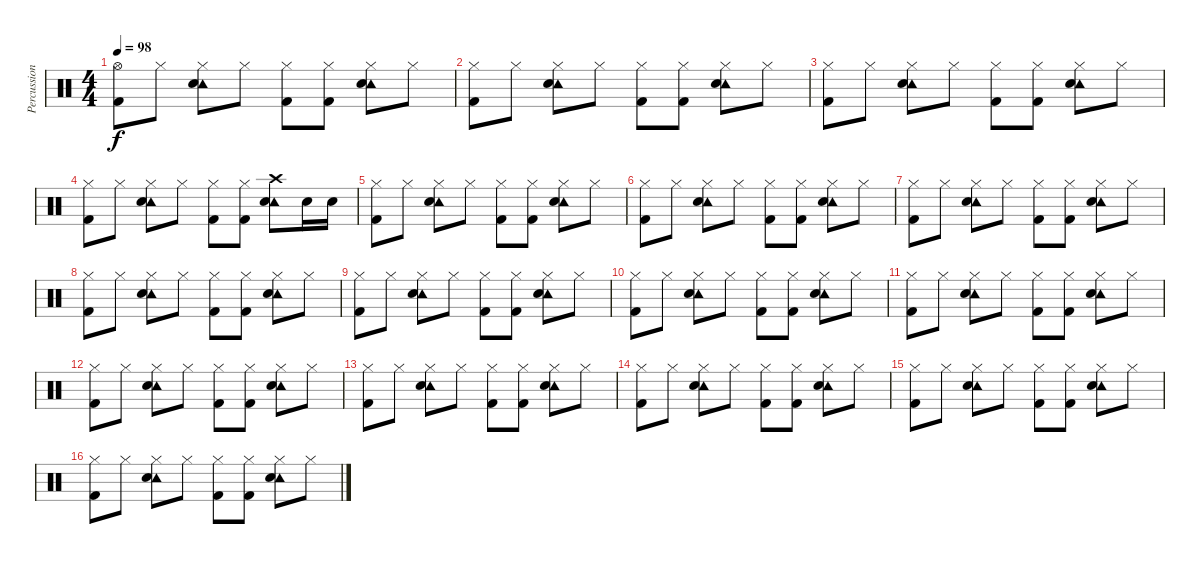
\track ("Percussion" "Percussion") {instrument percussion}
\staff {score}
\articulation defaults
\ts (4 4)
\tempo 98
\clef neutral
\ks c
("Hi-Hat (open)" "Kick (hit) 2").8{dy f} "Hi-Hat (closed)".8 ("Tambourine (hit)" "Hi-Hat (closed)" "Snare (hit) 2").8 "Hi-Hat (closed)".8 ("Hi-Hat (closed)" "Kick (hit) 2").8 ("Hi-Hat (closed)" "Kick (hit) 2").8 ("Tambourine (hit)" "Hi-Hat (closed)" "Snare (hit) 2").8 "Hi-Hat (closed)".8 |
("Hi-Hat (closed)" "Kick (hit) 2").8 "Hi-Hat (closed)".8 ("Tambourine (hit)" "Hi-Hat (closed)" "Snare (hit) 2").8 "Hi-Hat (closed)".8 ("Hi-Hat (closed)" "Kick (hit) 2").8 ("Hi-Hat (closed)" "Kick (hit) 2").8 ("Tambourine (hit)" "Hi-Hat (closed)" "Snare (hit) 2").8 "Hi-Hat (closed)".8 |
("Hi-Hat (closed)" "Kick (hit) 2").8 "Hi-Hat (closed)".8 ("Tambourine (hit)" "Hi-Hat (closed)" "Snare (hit) 2").8 "Hi-Hat (closed)".8 ("Hi-Hat (closed)" "Kick (hit) 2").8 ("Hi-Hat (closed)" "Kick (hit) 2").8 ("Tambourine (hit)" "Hi-Hat (closed)" "Snare (hit) 2").8 "Hi-Hat (closed)".8 |
("Hi-Hat (closed)" "Kick (hit) 2").8 "Hi-Hat (closed)".8 ("Tambourine (hit)" "Hi-Hat (closed)" "Snare (hit) 2").8 "Hi-Hat (closed)".8 ("Hi-Hat (closed)" "Kick (hit) 2").8 ("Hi-Hat (closed)" "Kick (hit) 2").8 ("Tambourine (hit)" "Crash high (hit)" "Snare (hit) 2").8 "Snare (hit) 2".16 "Snare (hit) 2".16 |
("Hi-Hat (closed)" "Kick (hit) 2").8 "Hi-Hat (closed)".8 ("Tambourine (hit)" "Hi-Hat (closed)" "Snare (hit) 2").8 "Hi-Hat (closed)".8 ("Hi-Hat (closed)" "Kick (hit) 2").8 ("Hi-Hat (closed)" "Kick (hit) 2").8 ("Tambourine (hit)" "Hi-Hat (closed)" "Snare (hit) 2").8 "Hi-Hat (closed)".8 |
("Hi-Hat (closed)" "Kick (hit) 2").8 "Hi-Hat (closed)".8 ("Tambourine (hit)" "Hi-Hat (closed)" "Snare (hit) 2").8 "Hi-Hat (closed)".8 ("Hi-Hat (closed)" "Kick (hit) 2").8 ("Hi-Hat (closed)" "Kick (hit) 2").8 ("Tambourine (hit)" "Hi-Hat (closed)" "Snare (hit) 2").8 "Hi-Hat (closed)".8 |
("Hi-Hat (closed)" "Kick (hit) 2").8 "Hi-Hat (closed)".8 ("Tambourine (hit)" "Hi-Hat (closed)" "Snare (hit) 2").8 "Hi-Hat (closed)".8 ("Hi-Hat (closed)" "Kick (hit) 2").8 ("Hi-Hat (closed)" "Kick (hit) 2").8 ("Tambourine (hit)" "Hi-Hat (closed)" "Snare (hit) 2").8 "Hi-Hat (closed)".8 |
("Hi-Hat (closed)" "Kick (hit) 2").8 "Hi-Hat (closed)".8 ("Tambourine (hit)" "Hi-Hat (closed)" "Snare (hit) 2").8 "Hi-Hat (closed)".8 ("Hi-Hat (closed)" "Kick (hit) 2").8 ("Hi-Hat (closed)" "Kick (hit) 2").8 ("Tambourine (hit)" "Hi-Hat (closed)" "Snare (hit) 2").8 "Hi-Hat (closed)".8 |
("Hi-Hat (closed)" "Kick (hit) 2").8 "Hi-Hat (closed)".8 ("Tambourine (hit)" "Hi-Hat (closed)" "Snare (hit) 2").8 "Hi-Hat (closed)".8 ("Hi-Hat (closed)" "Kick (hit) 2").8 ("Hi-Hat (closed)" "Kick (hit) 2").8 ("Tambourine (hit)" "Hi-Hat (closed)" "Snare (hit) 2").8 "Hi-Hat (closed)".8 |
("Hi-Hat (closed)" "Kick (hit) 2").8 "Hi-Hat (closed)".8 ("Tambourine (hit)" "Hi-Hat (closed)" "Snare (hit) 2").8 "Hi-Hat (closed)".8 ("Hi-Hat (closed)" "Kick (hit) 2").8 ("Hi-Hat (closed)" "Kick (hit) 2").8 ("Tambourine (hit)" "Hi-Hat (closed)" "Snare (hit) 2").8 "Hi-Hat (closed)".8 |
("Hi-Hat (closed)" "Kick (hit) 2").8 "Hi-Hat (closed)".8 ("Tambourine (hit)" "Hi-Hat (closed)" "Snare (hit) 2").8 "Hi-Hat (closed)".8 ("Hi-Hat (closed)" "Kick (hit) 2").8 ("Hi-Hat (closed)" "Kick (hit) 2").8 ("Tambourine (hit)" "Hi-Hat (closed)" "Snare (hit) 2").8 "Hi-Hat (closed)".8 |
("Hi-Hat (closed)" "Kick (hit) 2").8 "Hi-Hat (closed)".8 ("Tambourine (hit)" "Hi-Hat (closed)" "Snare (hit) 2").8 "Hi-Hat (closed)".8 ("Hi-Hat (closed)" "Kick (hit) 2").8 ("Hi-Hat (closed)" "Kick (hit) 2").8 ("Tambourine (hit)" "Hi-Hat (closed)" "Snare (hit) 2").8 "Hi-Hat (closed)".8 |
("Hi-Hat (closed)" "Kick (hit) 2").8 "Hi-Hat (closed)".8 ("Tambourine (hit)" "Hi-Hat (closed)" "Snare (hit) 2").8 "Hi-Hat (closed)".8 ("Hi-Hat (closed)" "Kick (hit) 2").8 ("Hi-Hat (closed)" "Kick (hit) 2").8 ("Tambourine (hit)" "Hi-Hat (closed)" "Snare (hit) 2").8 "Hi-Hat (closed)".8 |
("Hi-Hat (closed)" "Kick (hit) 2").8 "Hi-Hat (closed)".8 ("Tambourine (hit)" "Hi-Hat (closed)" "Snare (hit) 2").8 "Hi-Hat (closed)".8 ("Hi-Hat (closed)" "Kick (hit) 2").8 ("Hi-Hat (closed)" "Kick (hit) 2").8 ("Tambourine (hit)" "Hi-Hat (closed)" "Snare (hit) 2").8 "Hi-Hat (closed)".8 |
("Hi-Hat (closed)" "Kick (hit) 2").8 "Hi-Hat (closed)".8 ("Tambourine (hit)" "Hi-Hat (closed)" "Snare (hit) 2").8 "Hi-Hat (closed)".8 ("Hi-Hat (closed)" "Kick (hit) 2").8 ("Hi-Hat (closed)" "Kick (hit) 2").8 ("Tambourine (hit)" "Hi-Hat (closed)" "Snare (hit) 2").8 "Hi-Hat (closed)".8 |
("Hi-Hat (closed)" "Kick (hit) 2").8 "Hi-Hat (closed)".8 ("Tambourine (hit)" "Hi-Hat (closed)" "Snare (hit) 2").8 "Hi-Hat (closed)".8 ("Hi-Hat (closed)" "Kick (hit) 2").8 ("Hi-Hat (closed)" "Kick (hit) 2").8 ("Tambourine (hit)" "Hi-Hat (closed)" "Snare (hit) 2").8 "Hi-Hat (closed)".8
